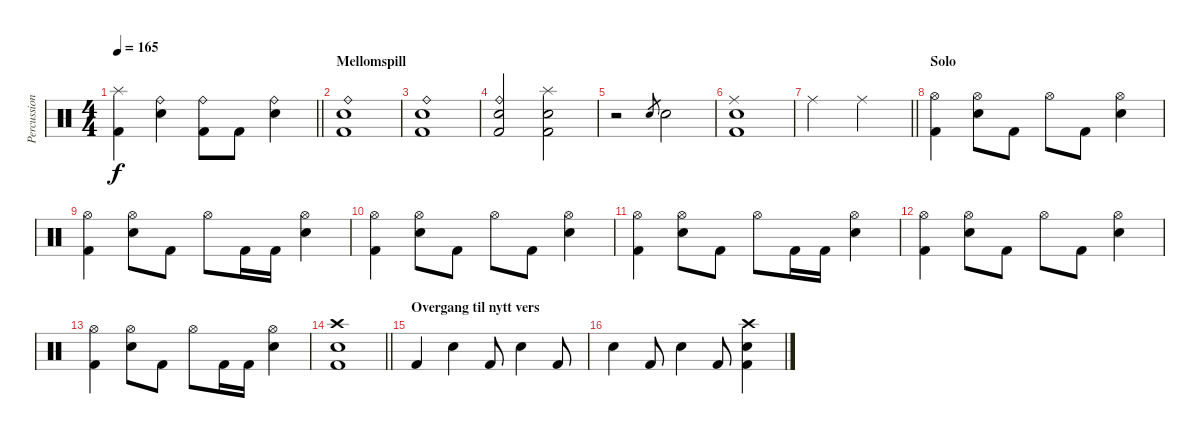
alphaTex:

\track ("Percussions" "Percussion") {instrument percussion}
\staff {score}
\articulation defaults
\ts (4 4)
\tempo 165
\clef neutral
\barLineRight lightlight
\ks c
("Splash (hit)" "Kick (hit) 2").4{dy f} ("Ride (bell)" "Snare (hit) 2").4 ("Ride (bell)" "Kick (hit) 2").8 "Kick (hit) 2".8 ("Ride (bell)" "Snare (hit) 2").4 |
\section ("" "Mellomspill")
("Ride (bell)" "Snare (hit) 2" "Kick (hit) 2").1 |
("Ride (bell)" "Snare (hit) 2" "Kick (hit) 2").1 |
("Ride (bell)" "Snare (hit) 2" "Kick (hit) 2").2 ("Splash (hit)" "Snare (hit) 2" "Kick (hit) 2").2 |
r.2 "Snare (hit) 2".8{gr} "Snare (hit) 2".2 |
("Ride (middle)" "Snare (hit) 2" "Kick (hit) 2").1 |
\barLineRight lightlight "Ride (middle)".2 "Ride (middle)".2
|
\section ("" "Solo")
("Hi-Hat (open)" "Kick (hit) 2").4 ("Hi-Hat (open)" "Snare (hit) 2").8 "Kick (hit) 2".8 "Hi-Hat (open)".8 "Kick (hit) 2".8 ("Hi-Hat (open)" "Snare (hit) 2").4 |
("Hi-Hat (open)" "Kick (hit) 2").4 ("Hi-Hat (open)" "Snare (hit) 2").8 "Kick (hit) 2".8 "Hi-Hat (open)".8 "Kick (hit) 2".16 "Kick (hit) 2".16 ("Hi-Hat (open)" "Snare (hit) 2").4 |
("Hi-Hat (open)" "Kick (hit) 2").4 ("Hi-Hat (open)" "Snare (hit) 2").8 "Kick (hit) 2".8 "Hi-Hat (open)".8 "Kick (hit) 2".8 ("Hi-Hat (open)" "Snare (hit) 2").4 |
("Hi-Hat (open)" "Kick (hit) 2").4 ("Hi-Hat (open)" "Snare (hit) 2").8 "Kick (hit) 2".8 "Hi-Hat (open)".8 "Kick (hit) 2".16 "Kick (hit) 2".16 ("Hi-Hat (open)" "Snare (hit) 2").4 |
("Hi-Hat (open)" "Kick (hit) 2").4 ("Hi-Hat (open)" "Snare (hit) 2").8 "Kick (hit) 2".8 "Hi-Hat (open)".8 "Kick (hit) 2".8 ("Hi-Hat (open)" "Snare (hit) 2").4 |
("Hi-Hat (open)" "Kick (hit) 2").4 ("Hi-Hat (open)" "Snare (hit) 2").8 "Kick (hit) 2".8 "Hi-Hat (open)".8 "Kick (hit) 2".16 "Kick (hit) 2".16 ("Hi-Hat (open)" "Snare (hit) 2").4 |
\barLineRight lightlight
("Crash high (hit)" "Snare (hit) 2" "Kick (hit) 2").1 |
\section ("" "Overgang til nytt vers")
"Kick (hit) 2".4 "Snare (hit) 2".4 "Kick (hit) 2".8 "Snare (hit) 2".4 "Kick (hit) 2".8 |
"Snare (hit) 2".4 "Kick (hit) 2".8 "Snare (hit) 2".4 "Kick (hit) 2".8 ("Crash high (hit)" "Snare (hit) 2" "Kick (hit) 2").4
